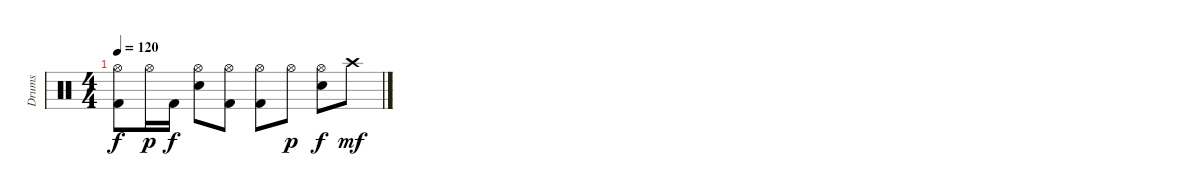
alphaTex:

\track ("Drums" "Drums") {instrument percussion}
\staff {score}
\articulation defaults
\ts (4 4)
\tempo 120
\clef neutral
\ks c
("Hi-Hat (open)" "Kick (hit) 2").8{dy f} "Hi-Hat (open)".16{dy p} "Kick (hit) 2".16{dy f} ("Hi-Hat (open)" "Electric Snare (hit)").8 ("Hi-Hat (open)" "Kick (hit) 2").8 ("Hi-Hat (open)" "Kick (hit) 2").8 "Hi-Hat (open)".8{dy p} ("Hi-Hat (open)" "Electric Snare (hit)").8{dy f} "Crash high (hit)".8{dy mf}
